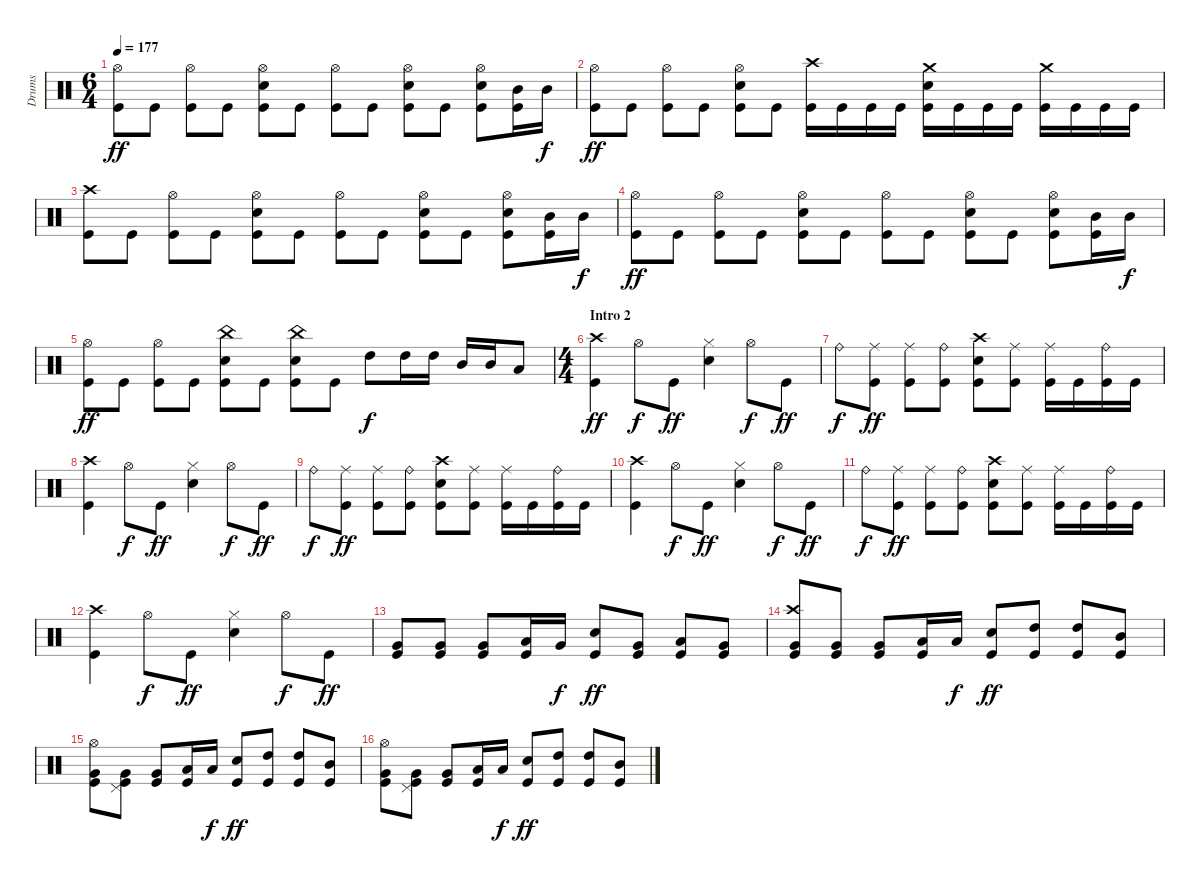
\track ("Drums" "Drums") {instrument percussion}
\staff {score}
\articulation defaults
\ts (6 4)
\tempo 177
\clef neutral
\ks c
("Hi-Hat (open)" "Kick (hit)").8{dy ff} "Kick (hit)".8 ("Hi-Hat (open)" "Kick (hit)").8 "Kick (hit)".8 ("Hi-Hat (open)" "Electric Snare (hit)" "Kick (hit)").8 "Kick (hit)".8 ("Hi-Hat (open)" "Kick (hit)").8 "Kick (hit)".8 ("Hi-Hat (open)" "Electric Snare (hit)" "Kick (hit)").8 "Kick (hit)".8 ("Hi-Hat (open)" "Electric Snare (hit)" "Kick (hit)").8 ("Mid Tom (hit)" "Kick (hit)").16 "Mid Tom (hit)".16{dy f} |
("Hi-Hat (open)" "Kick (hit)").8{dy ff} "Kick (hit)".8 ("Hi-Hat (open)" "Kick (hit)").8 "Kick (hit)".8 ("Hi-Hat (open)" "Electric Snare (hit)" "Kick (hit)").8 "Kick (hit)".8 ("Crash high (hit)" "Kick (hit)").16 "Kick (hit)".16 "Kick (hit)".16 "Kick (hit)".16 ("Crash medium (hit)" "Electric Snare (hit)" "Kick (hit)").16 "Kick (hit)".16 "Kick (hit)".16 "Kick (hit)".16 ("Crash medium (hit)" "Kick (hit)").16 "Kick (hit)".16 "Kick (hit)".16 "Kick (hit)".16 |
("Crash high (hit)" "Kick (hit)").8 "Kick (hit)".8 ("Hi-Hat (open)" "Kick (hit)").8 "Kick (hit)".8 ("Hi-Hat (open)" "Electric Snare (hit)" "Kick (hit)").8 "Kick (hit)".8 ("Hi-Hat (open)" "Kick (hit)").8 "Kick (hit)".8 ("Hi-Hat (open)" "Electric Snare (hit)" "Kick (hit)").8 "Kick (hit)".8 ("Hi-Hat (open)" "Electric Snare (hit)" "Kick (hit)").8 ("Mid Tom (hit)" "Kick (hit)").16 "Mid Tom (hit)".16{dy f} |
("Hi-Hat (open)" "Kick (hit)").8{dy ff} "Kick (hit)".8 ("Hi-Hat (open)" "Kick (hit)").8 "Kick (hit)".8 ("Hi-Hat (open)" "Electric Snare (hit)" "Kick (hit)").8 "Kick (hit)".8 ("Hi-Hat (open)" "Kick (hit)").8 "Kick (hit)".8 ("Hi-Hat (open)" "Electric Snare (hit)" "Kick (hit)").8 "Kick (hit)".8 ("Hi-Hat (open)" "Electric Snare (hit)" "Kick (hit)").8 ("Mid Tom (hit)" "Kick (hit)").16 "Mid Tom (hit)".16{dy f} |
("Hi-Hat (open)" "Kick (hit)").8{dy ff} "Kick (hit)".8 ("Hi-Hat (open)" "Kick (hit)").8 "Kick (hit)".8 ("China (hit)" "Electric Snare (hit)" "Kick (hit)").8 "Kick (hit)".8 ("China (hit)" "Electric Snare (hit)" "Kick (hit)").8 "Kick (hit)".8 "High Tom (hit)".8{dy f} "High Tom (hit)".16 "High Tom (hit)".16 "Mid Tom (hit)".16 "Mid Tom (hit)".16 "Low Tom (hit)".8 |
\ts (4 4)
\section ("" "Intro 2")
("Crash high (hit)" "Kick (hit)").4{dy ff} "Hi-Hat (open)".8{dy f} "Kick (hit)".8{dy ff} ("Hi-Hat (closed)" "Electric Snare (hit)").4 "Hi-Hat (open)".8{dy f} "Kick (hit)".8{dy ff} |
"Ride (bell)".8{dy f} ("Ride (middle)" "Kick (hit)").8{dy ff} ("Ride (middle)" "Kick (hit)").8 ("Ride (bell)" "Kick (hit)").8 ("Crash high (hit)" "Electric Snare (hit)" "Kick (hit)").8 ("Ride (middle)" "Kick (hit)").8 ("Ride (middle)" "Kick (hit)").16 "Kick (hit)".16 ("Ride (bell)" "Kick (hit)").16 "Kick (hit)".16 |
("Crash high (hit)" "Kick (hit)").4 "Hi-Hat (open)".8{dy f} "Kick (hit)".8{dy ff} ("Hi-Hat (closed)" "Electric Snare (hit)").4 "Hi-Hat (open)".8{dy f} "Kick (hit)".8{dy ff} |
"Ride (bell)".8{dy f} ("Ride (middle)" "Kick (hit)").8{dy ff} ("Ride (middle)" "Kick (hit)").8 ("Ride (bell)" "Kick (hit)").8 ("Crash high (hit)" "Electric Snare (hit)" "Kick (hit)").8 ("Ride (middle)" "Kick (hit)").8 ("Ride (middle)" "Kick (hit)").16 "Kick (hit)".16 ("Ride (bell)" "Kick (hit)").16 "Kick (hit)".16 |
("Crash high (hit)" "Kick (hit)").4 "Hi-Hat (open)".8{dy f} "Kick (hit)".8{dy ff} ("Hi-Hat (closed)" "Electric Snare (hit)").4 "Hi-Hat (open)".8{dy f} "Kick (hit)".8{dy ff} |
"Ride (bell)".8{dy f} ("Ride (middle)" "Kick (hit)").8{dy ff} ("Ride (middle)" "Kick (hit)").8 ("Ride (bell)" "Kick (hit)").8 ("Crash high (hit)" "Electric Snare (hit)" "Kick (hit)").8 ("Ride (middle)" "Kick (hit)").8 ("Ride (middle)" "Kick (hit)").16 "Kick (hit)".16 ("Ride (bell)" "Kick (hit)").16 "Kick (hit)".16 |
("Crash high (hit)" "Kick (hit)").4 "Hi-Hat (open)".8{dy f} "Kick (hit)".8{dy ff} ("Hi-Hat (closed)" "Electric Snare (hit)").4 "Hi-Hat (open)".8{dy f} "Kick (hit)".8{dy ff} |
("Very Low Tom (hit)" "Kick (hit)").8 ("Very Low Tom (hit)" "Kick (hit)").8 ("Very Low Tom (hit)" "Kick (hit)").8 ("Low Tom (hit)" "Kick (hit)").16 "Very Low Tom (hit)".16{dy f} ("Electric Snare (hit)" "Kick (hit)").8{dy ff} ("Very Low Tom (hit)" "Kick (hit)").8 ("Low Tom (hit)" "Kick (hit)").8 ("Very Low Tom (hit)" "Kick (hit)").8 |
("Crash high (hit)" "Very Low Tom (hit)" "Kick (hit)").8 ("Very Low Tom (hit)" "Kick (hit)").8 ("Very Low Tom (hit)" "Kick (hit)").8 ("Low Tom (hit)" "Kick (hit)").16 "Low Tom (hit)".16{dy f} ("Electric Snare (hit)" "Kick (hit)").8{dy ff} ("High Tom (hit)" "Kick (hit)").8 ("High Tom (hit)" "Kick (hit)").8 ("Mid Tom (hit)" "Kick (hit)").8 |
("Hi-Hat (open)" "Very Low Tom (hit)" "Kick (hit)").8 ("Pedal Hi-Hat (hit)" "Very Low Tom (hit)" "Kick (hit)").8 ("Very Low Tom (hit)" "Kick (hit)").8 ("Low Tom (hit)" "Kick (hit)").16 "Low Tom (hit)".16{dy f} ("Electric Snare (hit)" "Kick (hit)").8{dy ff} ("High Tom (hit)" "Kick (hit)").8 ("High Tom (hit)" "Kick (hit)").8 ("Mid Tom (hit)" "Kick (hit)").8 |
("Hi-Hat (open)" "Very Low Tom (hit)" "Kick (hit)").8 ("Pedal Hi-Hat (hit)" "Very Low Tom (hit)" "Kick (hit)").8 ("Very Low Tom (hit)" "Kick (hit)").8 ("Low Tom (hit)" "Kick (hit)").16 "Low Tom (hit)".16{dy f} ("Electric Snare (hit)" "Kick (hit)").8{dy ff} ("High Tom (hit)" "Kick (hit)").8 ("High Tom (hit)" "Kick (hit)").8 ("Mid Tom (hit)" "Kick (hit)").8
